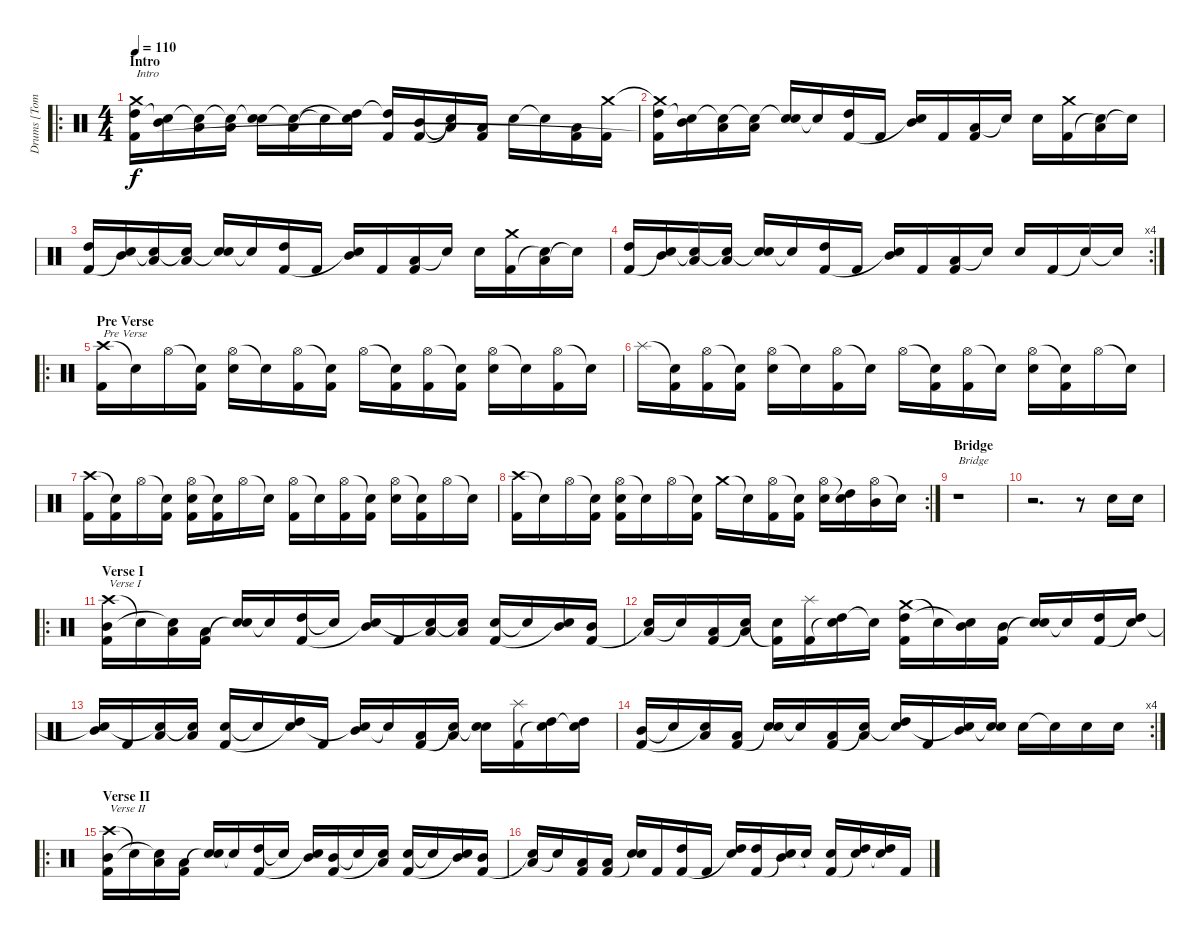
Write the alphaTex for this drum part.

\track ("Drums [Tomas Haake]" "Drums [Tom") {instrument percussion}
\staff {score}
\articulation defaults
\ro
\ts (4 4)
\section ("" "Intro")
\tempo 110
\clef neutral
\ks c
("Crash medium (hit)" "High Tom (hit)" "Kick (hit) 2").16{txt "Intro" dy f} ("Mid Tom (hit)" "Snare (hit)"{t}).16 ("Low Tom (hit)" "Snare (hit)"{t}).16 ("Low Tom (hit)" "Snare (hit)"{t}).16 ("Electric Snare (hit)" "Snare (hit)"{t}).16 ("Low Tom (hit)" "Snare (hit)"{t}).16 "Snare (hit)"{t}.16 ("High Tom (hit)" "Snare (hit)"{t}).16 ("High Tom (hit)"{t} "Kick (hit) 2").16 ("Mid Tom (hit)" "Kick (hit) 2").16 ("Low Tom (hit)"{t} "Snare (hit)"{t}).16 ("Low Tom (hit)" "Kick (hit) 2").16 "Electric Snare (hit)".16 "Snare (hit)"{t}.16 ("Low Tom (hit)" "Kick (hit) 2").16 ("Crash medium (hit)" "Kick (hit) 2").16 |
("Crash medium (hit)"{t} "High Tom (hit)" "Kick (hit) 2"{t}).16 ("Mid Tom (hit)" "Snare (hit)"{t}).16 ("Low Tom (hit)" "Snare (hit)"{t}).16 ("Low Tom (hit)" "Snare (hit)"{t}).16 ("Electric Snare (hit)" "Snare (hit)"{t}).16 "Snare (hit)"{t}.16 ("High Tom (hit)" "Kick (hit) 2").16 "Kick (hit) 2".16 ("Mid Tom (hit)" "Snare (hit)"{t}).16 "Kick (hit) 2".16 ("Low Tom (hit)" "Kick (hit) 2").16 "Snare (hit)"{t}.16 "Electric Snare (hit)".16 ("Crash medium (hit)" "Kick (hit) 2").16 ("Low Tom (hit)" "Snare (hit)"{t}).16 "Snare (hit)"{t}.16 |
("High Tom (hit)" "Kick (hit) 2").16 ("Mid Tom (hit)" "Snare (hit)"{t}).16 ("Low Tom (hit)" "Snare (hit)"{t}).16 ("Low Tom (hit)" "Snare (hit)"{t}).16 ("Electric Snare (hit)" "Snare (hit)"{t}).16 "Snare (hit)"{t}.16 ("High Tom (hit)" "Kick (hit) 2").16 "Kick (hit) 2".16 ("Mid Tom (hit)" "Snare (hit)"{t}).16 "Kick (hit) 2".16 ("Low Tom (hit)" "Kick (hit) 2").16 "Snare (hit)"{t}.16 "Electric Snare (hit)".16 ("Crash medium (hit)" "Kick (hit) 2").16 ("Low Tom (hit)" "Snare (hit)"{t}).16 "Snare (hit)"{t}.16 |
\rc 4
("High Tom (hit)" "Kick (hit) 2").16 ("Mid Tom (hit)" "Snare (hit)"{t}).16 ("Low Tom (hit)" "Snare (hit)"{t}).16 ("Low Tom (hit)" "Snare (hit)"{t}).16 ("Electric Snare (hit)" "Snare (hit)"{t}).16 "Snare (hit)"{t}.16 ("High Tom (hit)" "Kick (hit) 2").16 "Kick (hit) 2".16 ("Mid Tom (hit)" "Snare (hit)"{t}).16 "Kick (hit) 2".16 ("Low Tom (hit)" "Kick (hit) 2").16 "Snare (hit)"{t}.16 "Electric Snare (hit)".16 "Kick (hit) 2".16 "Snare (hit)"{t}.16 "Snare (hit)"{t}.16 |
\ro
\section ("" "Pre Verse")
("Crash high (hit)" "Kick (hit) 2").16{txt "Pre Verse"} "Snare (hit)"{t}.16 "Hi-Hat (open)".16 ("Snare (hit)"{t} "Kick (hit) 2").16 ("Hi-Hat (open)" "Electric Snare (hit)").16 "Snare (hit)"{t}.16 ("Hi-Hat (open)" "Kick (hit) 2").16 ("Snare (hit)"{t} "Kick (hit) 2").16 "Hi-Hat (open)".16 ("Snare (hit)"{t} "Kick (hit) 2").16 ("Hi-Hat (open)" "Kick (hit) 2").16 ("Snare (hit)"{t} "Kick (hit) 2").16 ("Hi-Hat (open)" "Electric Snare (hit)").16 "Snare (hit)"{t}.16 ("Hi-Hat (open)" "Kick (hit) 2").16 "Snare (hit)"{t}.16 |
"Splash (hit)".16 ("Snare (hit)"{t} "Kick (hit) 2").16 ("Hi-Hat (open)" "Kick (hit) 2").16 ("Snare (hit)"{t} "Kick (hit) 2").16 ("Hi-Hat (open)" "Electric Snare (hit)").16 "Snare (hit)"{t}.16 ("Hi-Hat (open)" "Kick (hit) 2").16 "Snare (hit)"{t}.16 "Hi-Hat (open)".16 ("Snare (hit)"{t} "Kick (hit) 2").16 ("Hi-Hat (open)" "Kick (hit) 2").16 "Snare (hit)"{t}.16 ("Hi-Hat (open)" "Electric Snare (hit)").16 ("Snare (hit)"{t} "Kick (hit) 2").16 "Hi-Hat (open)".16 "Snare (hit)"{t}.16 |
("Crash high (hit)" "Kick (hit) 2").16 ("Snare (hit)"{t} "Kick (hit) 2").16 "Hi-Hat (open)".16 ("Snare (hit)"{t} "Kick (hit) 2").16 ("Hi-Hat (open)" "Electric Snare (hit)" "Kick (hit) 2").16 ("Snare (hit)"{t} "Kick (hit) 2").16 "Hi-Hat (open)".16 "Snare (hit)"{t}.16 ("Hi-Hat (open)" "Kick (hit) 2").16 "Snare (hit)"{t}.16 ("Hi-Hat (open)" "Kick (hit) 2").16 ("Snare (hit)"{t} "Kick (hit) 2").16 ("Hi-Hat (open)" "Electric Snare (hit)").16 ("Snare (hit)"{t} "Kick (hit) 2").16 "Hi-Hat (open)".16 "Snare (hit)"{t}.16 |
\rc 2
("Crash high (hit)" "Kick (hit) 2").16 "Snare (hit)"{t}.16 "Hi-Hat (open)".16 ("Snare (hit)"{t} "Kick (hit) 2").16 ("Hi-Hat (open)" "Electric Snare (hit)" "Kick (hit) 2").16 "Snare (hit)"{t}.16 "Hi-Hat (open)".16 ("Snare (hit)"{t} "Kick (hit) 2").16 "Crash medium (hit)".16 "Snare (hit)"{t}.16 ("Hi-Hat (open)" "Kick (hit) 2").16 ("Snare (hit)"{t} "Kick (hit) 2").16 ("Hi-Hat (open)" "Electric Snare (hit)").16 ("Snare (hit)"{t} "High Tom (hit)").16 ("Hi-Hat (open)" "Mid Tom (hit)").16 "Snare (hit)"{t}.16 |
\section ("" "Bridge")
r.1{txt "Bridge"} |
r.2{d} r.8 "Electric Snare (hit)".16 "Electric Snare (hit)".16 |
\ro
\section ("" "Verse I")
("Crash high (hit)" "Mid Tom (hit)" "Kick (hit) 2").16{txt "Verse I"} "Snare (hit)"{t}.16 ("Low Tom (hit)" "Snare (hit)"{t}).16 ("Low Tom (hit)" "Kick (hit) 2").16 ("Electric Snare (hit)" "Snare (hit)"{t}).16 "Snare (hit)"{t}.16 ("High Tom (hit)" "Kick (hit) 2").16 "Snare (hit)"{t}.16 ("Mid Tom (hit)" "Snare (hit)"{t}).16 "Kick (hit) 2".16 ("Low Tom (hit)" "Snare (hit)"{t}).16 ("Low Tom (hit)" "Snare (hit)"{t}).16 ("Electric Snare (hit)" "Kick (hit) 2").16 "Snare (hit)"{t}.16 ("Mid Tom (hit)" "Snare (hit)"{t}).16 ("Mid Tom (hit)" "Kick (hit) 2").16 |
("Low Tom (hit)" "Snare (hit)"{t}).16 "Snare (hit)"{t}.16 ("Low Tom (hit)" "Kick (hit) 2").16 ("Low Tom (hit)" "Snare (hit)"{t}).16 ("Electric Snare (hit)" "Kick (hit) 2"{t}).16 ("Splash (hit)" "Kick (hit) 2").16 ("High Tom (hit)" "Snare (hit)"{t}).16 "Snare (hit)"{t}.16 ("Crash medium (hit)" "High Tom (hit)" "Kick (hit) 2").16 "Snare (hit)"{t}.16 ("Mid Tom (hit)" "Snare (hit)"{t}).16 ("Mid Tom (hit)" "Kick (hit) 2").16 ("Electric Snare (hit)" "Snare (hit)"{t}).16 "Snare (hit)"{t}.16 ("High Tom (hit)" "Kick (hit) 2").16 ("High Tom (hit)" "Snare (hit)"{t}).16 |
("Mid Tom (hit)" "Snare (hit)"{t}).16 "Kick (hit) 2".16 ("Low Tom (hit)" "Snare (hit)"{t}).16 ("Low Tom (hit)" "Snare (hit)"{t}).16 ("Electric Snare (hit)" "Kick (hit) 2").16 "Snare (hit)"{t}.16 ("High Tom (hit)" "Snare (hit)"{t}).16 "Kick (hit) 2".16 ("Mid Tom (hit)" "Snare (hit)"{t}).16 "Snare (hit)"{t}.16 ("Low Tom (hit)" "Kick (hit) 2").16 ("Low Tom (hit)" "Snare (hit)"{t}).16 ("Electric Snare (hit)" "Snare (hit)"{t}).16 ("Splash (hit)" "Kick (hit) 2").16 ("High Tom (hit)" "Snare (hit)"{t}).16 ("High Tom (hit)" "Snare (hit)"{t}).16 |
\rc 4
("Mid Tom (hit)" "Kick (hit) 2").16 "Snare (hit)"{t}.16 ("Low Tom (hit)" "Snare (hit)"{t}).16 ("Low Tom (hit)" "Kick (hit) 2").16 ("Electric Snare (hit)" "Snare (hit)"{t}).16 "Snare (hit)"{t}.16 ("Low Tom (hit)" "Kick (hit) 2").16 ("Low Tom (hit)" "Snare (hit)"{t}).16 ("High Tom (hit)" "Snare (hit)"{t}).16 "Kick (hit) 2".16 ("Mid Tom (hit)" "Snare (hit)"{t}).16 ("Electric Snare (hit)" "Snare (hit)"{t}).16 "Electric Snare (hit)".16 "Snare (hit)"{t}.16 "Electric Snare (hit)".16 "Electric Snare (hit)".16 |
\ro
\section ("" "Verse II")
("Crash high (hit)" "Mid Tom (hit)" "Kick (hit) 2").16{txt "Verse II"} "Snare (hit)"{t}.16 ("Low Tom (hit)" "Snare (hit)"{t}).16 ("Low Tom (hit)" "Kick (hit) 2").16 ("Electric Snare (hit)" "Snare (hit)"{t}).16 "Snare (hit)"{t}.16 ("High Tom (hit)" "Kick (hit) 2").16 "Snare (hit)"{t}.16 ("Mid Tom (hit)" "Snare (hit)"{t}).16 ("Mid Tom (hit)" "Kick (hit) 2").16 "Snare (hit)"{t}.16 ("Low Tom (hit)" "Snare (hit)"{t}).16 ("Electric Snare (hit)" "Kick (hit) 2").16 "Snare (hit)"{t}.16 ("Mid Tom (hit)" "Snare (hit)"{t}).16 ("Mid Tom (hit)" "Kick (hit) 2").16 |
("Low Tom (hit)" "Snare (hit)"{t}).16 "Snare (hit)"{t}.16 ("Low Tom (hit)" "Kick (hit) 2").16 ("Low Tom (hit)" "Kick (hit) 2").16 ("Electric Snare (hit)" "Snare (hit)"{t}).16 "Kick (hit) 2".16 ("High Tom (hit)" "Kick (hit) 2").16 "Kick (hit) 2".16 ("High Tom (hit)" "Snare (hit)"{t}).16 ("High Tom (hit)" "Kick (hit) 2").16 ("Mid Tom (hit)" "Snare (hit)"{t}).16 "Snare (hit)"{t}.16 ("Electric Snare (hit)" "Kick (hit) 2").16 ("High Tom (hit)" "Snare (hit)"{t}).16 ("High Tom (hit)" "Snare (hit)"{t}).16 "Kick (hit) 2".16
